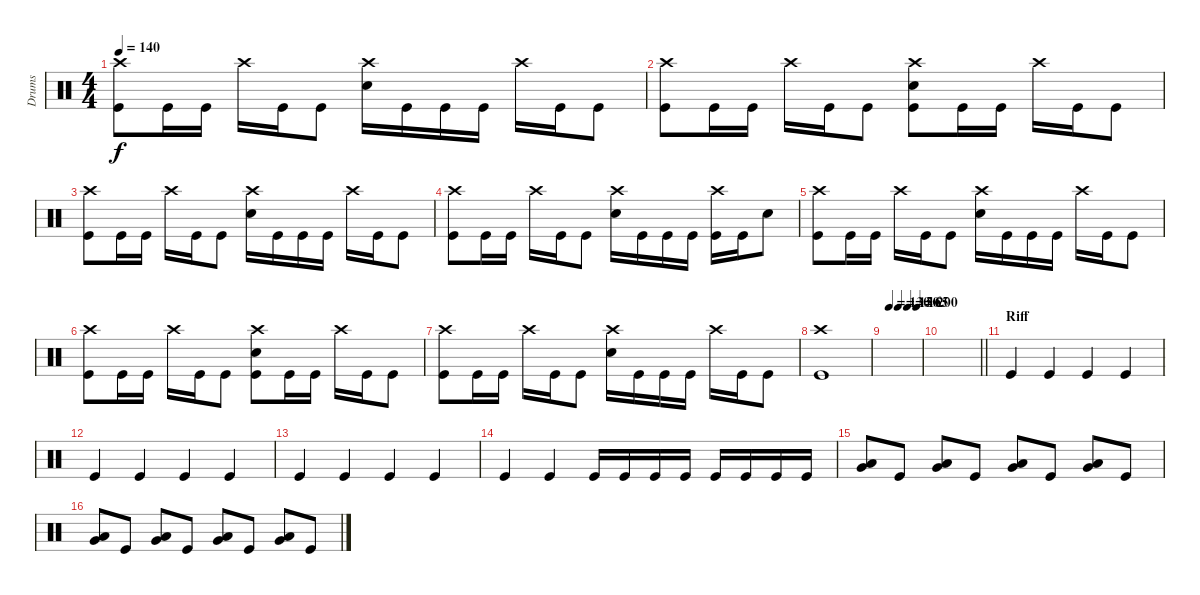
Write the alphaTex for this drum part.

\track ("Drums" "Drums") {instrument percussion}
\staff {score}
\articulation defaults
\ts (4 4)
\tempo 140
\clef neutral
\ks c
("Crash high (hit)" "Kick (hit)").8{dy f} "Kick (hit)".16 "Kick (hit)".16 "Crash high (hit)".16 "Kick (hit)".16 "Kick (hit)".8 ("Crash high (hit)" "Snare (hit) 2").16 "Kick (hit)".16 "Kick (hit)".16 "Kick (hit)".16 "Crash high (hit)".16 "Kick (hit)".16 "Kick (hit)".8 |
("Crash high (hit)" "Kick (hit)").8 "Kick (hit)".16 "Kick (hit)".16 "Crash high (hit)".16 "Kick (hit)".16 "Kick (hit)".8 ("Snare (hit) 2" "Crash high (hit)" "Kick (hit)").8 "Kick (hit)".16 "Kick (hit)".16 "Crash high (hit)".16 "Kick (hit)".16 "Kick (hit)".8 |
("Crash high (hit)" "Kick (hit)").8 "Kick (hit)".16 "Kick (hit)".16 "Crash high (hit)".16 "Kick (hit)".16 "Kick (hit)".8 ("Crash high (hit)" "Snare (hit) 2").16 "Kick (hit)".16 "Kick (hit)".16 "Kick (hit)".16 "Crash high (hit)".16 "Kick (hit)".16 "Kick (hit)".8 |
("Crash high (hit)" "Kick (hit)").8 "Kick (hit)".16 "Kick (hit)".16 "Crash high (hit)".16 "Kick (hit)".16 "Kick (hit)".8 ("Crash high (hit)" "Snare (hit) 2").16 "Kick (hit)".16 "Kick (hit)".16 "Kick (hit)".16 ("Crash high (hit)" "Kick (hit)").16 "Kick (hit)".16 "Snare (hit) 2".8 |
("Crash high (hit)" "Kick (hit)").8 "Kick (hit)".16 "Kick (hit)".16 "Crash high (hit)".16 "Kick (hit)".16 "Kick (hit)".8 ("Crash high (hit)" "Snare (hit) 2").16 "Kick (hit)".16 "Kick (hit)".16 "Kick (hit)".16 "Crash high (hit)".16 "Kick (hit)".16 "Kick (hit)".8 |
("Crash high (hit)" "Kick (hit)").8 "Kick (hit)".16 "Kick (hit)".16 "Crash high (hit)".16 "Kick (hit)".16 "Kick (hit)".8 ("Snare (hit) 2" "Crash high (hit)" "Kick (hit)").8 "Kick (hit)".16 "Kick (hit)".16 "Crash high (hit)".16 "Kick (hit)".16 "Kick (hit)".8 |
("Crash high (hit)" "Kick (hit)").8 "Kick (hit)".16 "Kick (hit)".16 "Crash high (hit)".16 "Kick (hit)".16 "Kick (hit)".8 ("Crash high (hit)" "Snare (hit) 2").16 "Kick (hit)".16 "Kick (hit)".16 "Kick (hit)".16 "Crash high (hit)".16 "Kick (hit)".16 "Kick (hit)".8 |
("Crash high (hit)" "Kick (hit)").1 |
\tempo (130 0.125)
\tempo (150 0.375)
\tempo (165 0.625)
\tempo (200 0.875)
|
\barLineRight lightlight
|
\section ("" "Riff")
"Kick (hit)".4 "Kick (hit)".4 "Kick (hit)".4 "Kick (hit)".4 |
"Kick (hit)".4 "Kick (hit)".4 "Kick (hit)".4 "Kick (hit)".4 |
"Kick (hit)".4 "Kick (hit)".4 "Kick (hit)".4 "Kick (hit)".4 |
"Kick (hit)".4 "Kick (hit)".4 "Kick (hit)".16 "Kick (hit)".16 "Kick (hit)".16 "Kick (hit)".16 "Kick (hit)".16 "Kick (hit)".16 "Kick (hit)".16 "Kick (hit)".16 |
("Very Low Tom (hit)" "Low Tom (hit)").8 "Kick (hit)".8 ("Very Low Tom (hit)" "Low Tom (hit)").8 "Kick (hit)".8 ("Very Low Tom (hit)" "Low Tom (hit)").8 "Kick (hit)".8 ("Very Low Tom (hit)" "Low Tom (hit)").8 "Kick (hit)".8 |
("Very Low Tom (hit)" "Low Tom (hit)").8 "Kick (hit)".8 ("Very Low Tom (hit)" "Low Tom (hit)").8 "Kick (hit)".8 ("Very Low Tom (hit)" "Low Tom (hit)").8 "Kick (hit)".8 ("Very Low Tom (hit)" "Low Tom (hit)").8 "Kick (hit)".8
